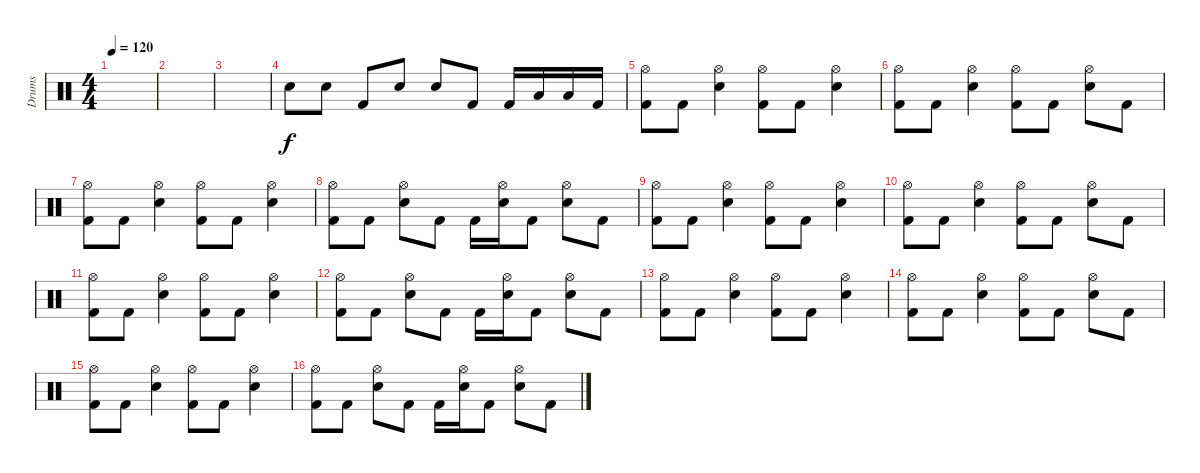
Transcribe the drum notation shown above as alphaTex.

\track ("Drums" "Drums") {instrument percussion}
\staff {score}
\articulation defaults
\ts (4 4)
\tempo 120
\clef neutral
\ks c
|
|
|
"Snare (hit) 2".8 "Snare (hit) 2".8 "Kick (hit) 2".8 "Snare (hit) 2".8 "Snare (hit) 2".8 "Kick (hit) 2".8 "Kick (hit) 2".16 "Low Tom (hit)".16 "Low Tom (hit)".16 "Kick (hit) 2".16 |
("Hi-Hat (open)" "Kick (hit) 2").8 "Kick (hit) 2".8 ("Hi-Hat (open)" "Snare (hit) 2").4 ("Hi-Hat (open)" "Kick (hit) 2").8 "Kick (hit) 2".8 ("Hi-Hat (open)" "Snare (hit) 2").4 |
("Hi-Hat (open)" "Kick (hit) 2").8 "Kick (hit) 2".8 ("Hi-Hat (open)" "Snare (hit) 2").4 ("Hi-Hat (open)" "Kick (hit) 2").8 "Kick (hit) 2".8 ("Hi-Hat (open)" "Snare (hit) 2").8 "Kick (hit) 2".8 |
("Hi-Hat (open)" "Kick (hit) 2").8 "Kick (hit) 2".8 ("Hi-Hat (open)" "Snare (hit) 2").4 ("Hi-Hat (open)" "Kick (hit) 2").8 "Kick (hit) 2".8 ("Hi-Hat (open)" "Snare (hit) 2").4 |
("Hi-Hat (open)" "Kick (hit) 2").8 "Kick (hit) 2".8 ("Hi-Hat (open)" "Snare (hit) 2").8 "Kick (hit) 2".8 "Kick (hit) 2".16 ("Hi-Hat (open)" "Snare (hit) 2").16 "Kick (hit) 2".8 ("Hi-Hat (open)" "Snare (hit) 2").8 "Kick (hit) 2".8 |
("Hi-Hat (open)" "Kick (hit) 2").8 "Kick (hit) 2".8 ("Hi-Hat (open)" "Snare (hit) 2").4 ("Hi-Hat (open)" "Kick (hit) 2").8 "Kick (hit) 2".8 ("Hi-Hat (open)" "Snare (hit) 2").4 |
("Hi-Hat (open)" "Kick (hit) 2").8 "Kick (hit) 2".8 ("Hi-Hat (open)" "Snare (hit) 2").4 ("Hi-Hat (open)" "Kick (hit) 2").8 "Kick (hit) 2".8 ("Hi-Hat (open)" "Snare (hit) 2").8 "Kick (hit) 2".8 |
("Hi-Hat (open)" "Kick (hit) 2").8 "Kick (hit) 2".8 ("Hi-Hat (open)" "Snare (hit) 2").4 ("Hi-Hat (open)" "Kick (hit) 2").8 "Kick (hit) 2".8 ("Hi-Hat (open)" "Snare (hit) 2").4 |
("Hi-Hat (open)" "Kick (hit) 2").8 "Kick (hit) 2".8 ("Hi-Hat (open)" "Snare (hit) 2").8 "Kick (hit) 2".8 "Kick (hit) 2".16 ("Hi-Hat (open)" "Snare (hit) 2").16 "Kick (hit) 2".8 ("Hi-Hat (open)" "Snare (hit) 2").8 "Kick (hit) 2".8 |
("Hi-Hat (open)" "Kick (hit) 2").8 "Kick (hit) 2".8 ("Hi-Hat (open)" "Snare (hit) 2").4 ("Hi-Hat (open)" "Kick (hit) 2").8 "Kick (hit) 2".8 ("Hi-Hat (open)" "Snare (hit) 2").4 |
("Hi-Hat (open)" "Kick (hit) 2").8 "Kick (hit) 2".8 ("Hi-Hat (open)" "Snare (hit) 2").4 ("Hi-Hat (open)" "Kick (hit) 2").8 "Kick (hit) 2".8 ("Hi-Hat (open)" "Snare (hit) 2").8 "Kick (hit) 2".8 |
("Hi-Hat (open)" "Kick (hit) 2").8 "Kick (hit) 2".8 ("Hi-Hat (open)" "Snare (hit) 2").4 ("Hi-Hat (open)" "Kick (hit) 2").8 "Kick (hit) 2".8 ("Hi-Hat (open)" "Snare (hit) 2").4 |
("Hi-Hat (open)" "Kick (hit) 2").8 "Kick (hit) 2".8 ("Hi-Hat (open)" "Snare (hit) 2").8 "Kick (hit) 2".8 "Kick (hit) 2".16 ("Hi-Hat (open)" "Snare (hit) 2").16 "Kick (hit) 2".8 ("Hi-Hat (open)" "Snare (hit) 2").8 "Kick (hit) 2".8
